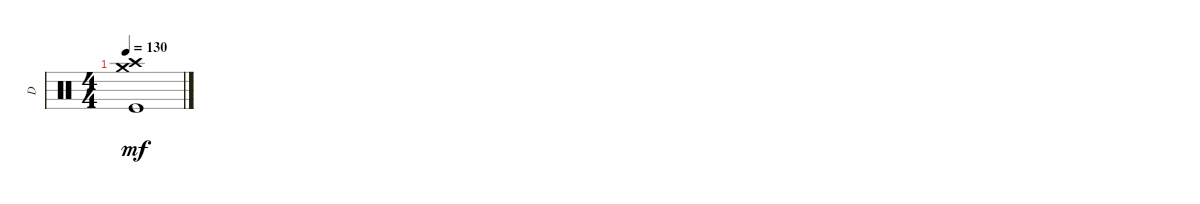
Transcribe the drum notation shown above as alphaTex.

\track ("D" "D") {instrument percussion}
\staff {score}
\articulation defaults
\ts (4 4)
\tempo 130
\clef neutral
\ks c
("Kick (hit)" "Crash high (hit)" "Crash medium (hit)").1{dy mf}
